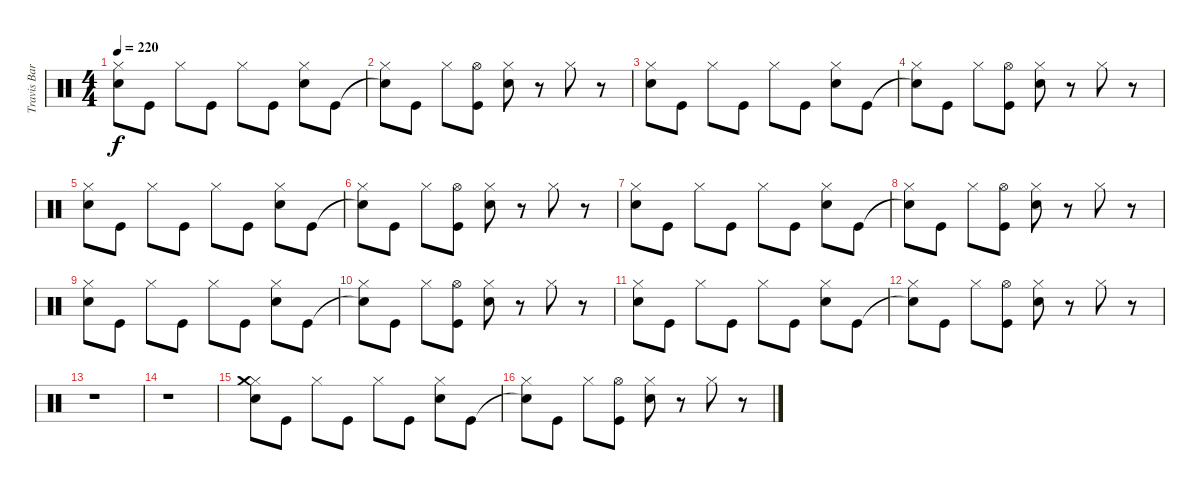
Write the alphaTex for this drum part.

\track ("Travis Barker (Drums)" "Travis Bar") {instrument percussion}
\staff {score}
\articulation defaults
\ts (4 4)
\tempo 220
\clef neutral
\ks c
("Electric Snare (hit)" "Hi-Hat (closed)").8{dy f} "Kick (hit)".8 "Hi-Hat (closed)".8 "Kick (hit)".8 "Hi-Hat (closed)".8 "Kick (hit)".8 ("Electric Snare (hit)" "Hi-Hat (closed)").8 "Kick (hit)".8 |
("Snare (hit)"{t} "Hi-Hat (closed)").8 "Kick (hit)".8 "Hi-Hat (closed)".8 ("Kick (hit)" "Hi-Hat (open)").8 ("Electric Snare (hit)" "Hi-Hat (closed)").8 r.8 "Hi-Hat (closed)".8 r.8 |
("Electric Snare (hit)" "Hi-Hat (closed)").8 "Kick (hit)".8 "Hi-Hat (closed)".8 "Kick (hit)".8 "Hi-Hat (closed)".8 "Kick (hit)".8 ("Electric Snare (hit)" "Hi-Hat (closed)").8 "Kick (hit)".8 |
("Snare (hit)"{t} "Hi-Hat (closed)").8 "Kick (hit)".8 "Hi-Hat (closed)".8 ("Kick (hit)" "Hi-Hat (open)").8 ("Electric Snare (hit)" "Hi-Hat (closed)").8 r.8 "Hi-Hat (closed)".8 r.8 |
("Electric Snare (hit)" "Hi-Hat (closed)").8 "Kick (hit)".8 "Hi-Hat (closed)".8 "Kick (hit)".8 "Hi-Hat (closed)".8 "Kick (hit)".8 ("Electric Snare (hit)" "Hi-Hat (closed)").8 "Kick (hit)".8 |
("Snare (hit)"{t} "Hi-Hat (closed)").8 "Kick (hit)".8 "Hi-Hat (closed)".8 ("Kick (hit)" "Hi-Hat (open)").8 ("Electric Snare (hit)" "Hi-Hat (closed)").8 r.8 "Hi-Hat (closed)".8 r.8 |
("Electric Snare (hit)" "Hi-Hat (closed)").8 "Kick (hit)".8 "Hi-Hat (closed)".8 "Kick (hit)".8 "Hi-Hat (closed)".8 "Kick (hit)".8 ("Electric Snare (hit)" "Hi-Hat (closed)").8 "Kick (hit)".8 |
("Snare (hit)"{t} "Hi-Hat (closed)").8 "Kick (hit)".8 "Hi-Hat (closed)".8 ("Kick (hit)" "Hi-Hat (open)").8 ("Electric Snare (hit)" "Hi-Hat (closed)").8 r.8 "Hi-Hat (closed)".8 r.8 |
("Electric Snare (hit)" "Hi-Hat (closed)").8 "Kick (hit)".8 "Hi-Hat (closed)".8 "Kick (hit)".8 "Hi-Hat (closed)".8 "Kick (hit)".8 ("Electric Snare (hit)" "Hi-Hat (closed)").8 "Kick (hit)".8 |
("Snare (hit)"{t} "Hi-Hat (closed)").8 "Kick (hit)".8 "Hi-Hat (closed)".8 ("Kick (hit)" "Hi-Hat (open)").8 ("Electric Snare (hit)" "Hi-Hat (closed)").8 r.8 "Hi-Hat (closed)".8 r.8 |
("Electric Snare (hit)" "Hi-Hat (closed)").8 "Kick (hit)".8 "Hi-Hat (closed)".8 "Kick (hit)".8 "Hi-Hat (closed)".8 "Kick (hit)".8 ("Electric Snare (hit)" "Hi-Hat (closed)").8 "Kick (hit)".8 |
("Snare (hit)"{t} "Hi-Hat (closed)").8 "Kick (hit)".8 "Hi-Hat (closed)".8 ("Kick (hit)" "Hi-Hat (open)").8 ("Electric Snare (hit)" "Hi-Hat (closed)").8 r.8 "Hi-Hat (closed)".8 r.8 |
r.1 |
r.1 |
("Electric Snare (hit)" "Hi-Hat (closed)" "Crash medium (hit)").8 "Kick (hit)".8 "Hi-Hat (closed)".8 "Kick (hit)".8 "Hi-Hat (closed)".8 "Kick (hit)".8 ("Electric Snare (hit)" "Hi-Hat (closed)").8 "Kick (hit)".8 |
("Snare (hit)"{t} "Hi-Hat (closed)").8 "Kick (hit)".8 "Hi-Hat (closed)".8 ("Kick (hit)" "Hi-Hat (open)").8 ("Electric Snare (hit)" "Hi-Hat (closed)").8 r.8 "Hi-Hat (closed)".8 r.8
